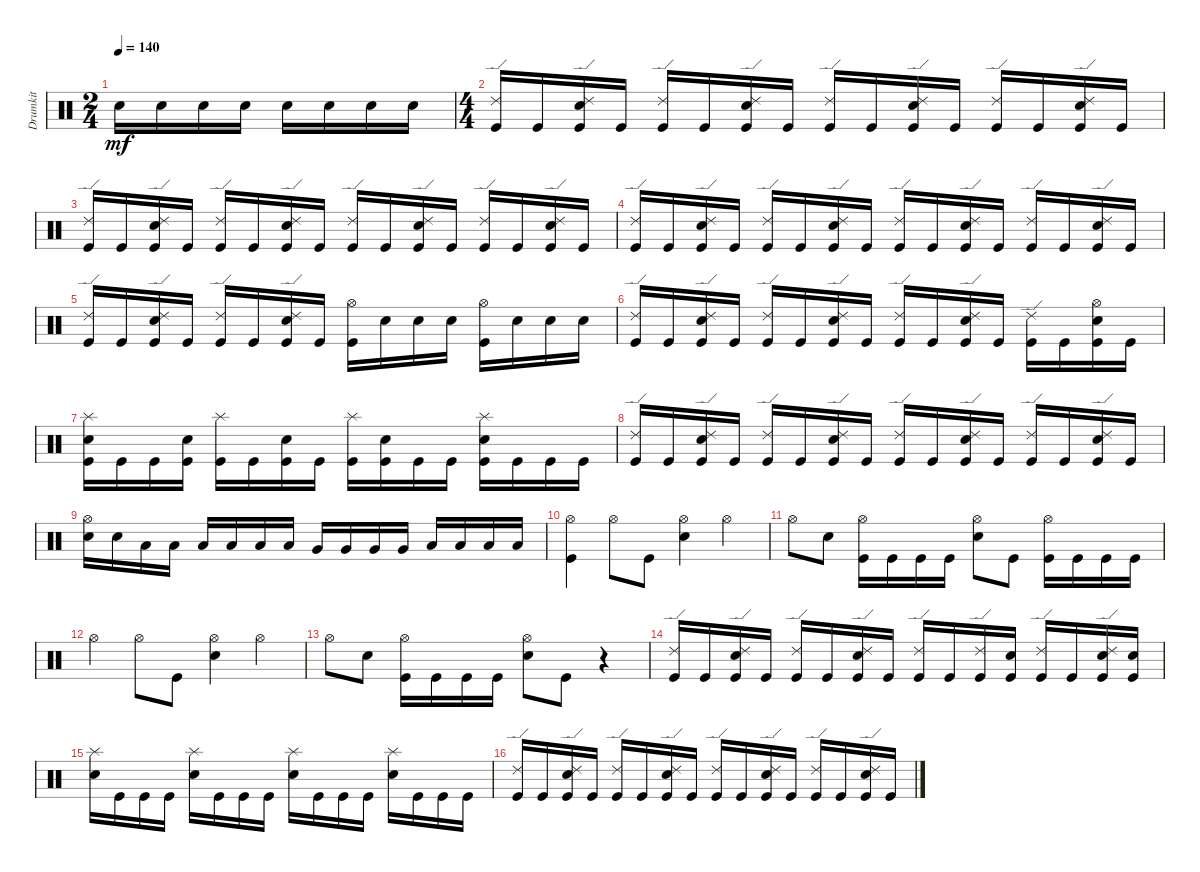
\track ("Drumkit" "Drumkit") {instrument percussion}
\staff {score}
\articulation defaults
\ts (2 4)
\tempo 140
\clef neutral
\ks c "Snare (hit) 2".16{dy mf} "Snare (hit) 2".16 "Snare (hit) 2".16 "Snare (hit) 2".16 "Snare (hit) 2".16 "Snare (hit) 2".16 "Snare (hit) 2".16 "Snare (hit) 2".16
|
\ts (4 4)
("Kick (hit)" "Ride (edge) 2").16 "Kick (hit)".16 ("Ride (edge) 2" "Snare (hit) 2" "Kick (hit)").16 "Kick (hit)".16 ("Kick (hit)" "Ride (edge) 2").16 "Kick (hit)".16 ("Ride (edge) 2" "Snare (hit) 2" "Kick (hit)").16 "Kick (hit)".16 ("Kick (hit)" "Ride (edge) 2").16 "Kick (hit)".16 ("Ride (edge) 2" "Snare (hit) 2" "Kick (hit)").16 "Kick (hit)".16 ("Kick (hit)" "Ride (edge) 2").16 "Kick (hit)".16 ("Snare (hit) 2" "Kick (hit)" "Ride (edge) 2").16 "Kick (hit)".16 |
("Kick (hit)" "Ride (edge) 2").16 "Kick (hit)".16 ("Ride (edge) 2" "Snare (hit) 2" "Kick (hit)").16 "Kick (hit)".16 ("Kick (hit)" "Ride (edge) 2").16 "Kick (hit)".16 ("Ride (edge) 2" "Snare (hit) 2" "Kick (hit)").16 "Kick (hit)".16 ("Kick (hit)" "Ride (edge) 2").16 "Kick (hit)".16 ("Ride (edge) 2" "Snare (hit) 2" "Kick (hit)").16 "Kick (hit)".16 ("Kick (hit)" "Ride (edge) 2").16 "Kick (hit)".16 ("Ride (edge) 2" "Snare (hit) 2" "Kick (hit)").16 "Kick (hit)".16 |
("Kick (hit)" "Ride (edge) 2").16 "Kick (hit)".16 ("Ride (edge) 2" "Snare (hit) 2" "Kick (hit)").16 "Kick (hit)".16 ("Kick (hit)" "Ride (edge) 2").16 "Kick (hit)".16 ("Ride (edge) 2" "Snare (hit) 2" "Kick (hit)").16 "Kick (hit)".16 ("Kick (hit)" "Ride (edge) 2").16 "Kick (hit)".16 ("Ride (edge) 2" "Snare (hit) 2" "Kick (hit)").16 "Kick (hit)".16 ("Kick (hit)" "Ride (edge) 2").16 "Kick (hit)".16 ("Ride (edge) 2" "Snare (hit) 2" "Kick (hit)").16 "Kick (hit)".16 |
("Kick (hit)" "Ride (edge) 2").16 "Kick (hit)".16 ("Ride (edge) 2" "Snare (hit) 2" "Kick (hit)").16 "Kick (hit)".16 ("Kick (hit)" "Ride (edge) 2").16 "Kick (hit)".16 ("Ride (edge) 2" "Snare (hit) 2" "Kick (hit)").16 "Kick (hit)".16 ("Kick (hit)" "Hi-Hat (open)").16 "Snare (hit) 2".16 "Snare (hit) 2".16 "Snare (hit) 2".16 ("Kick (hit)" "Hi-Hat (open)").16 "Snare (hit) 2".16 "Snare (hit) 2".16 "Snare (hit) 2".16 |
("Kick (hit)" "Ride (edge) 2").16 "Kick (hit)".16 ("Ride (edge) 2" "Snare (hit) 2" "Kick (hit)").16 "Kick (hit)".16 ("Kick (hit)" "Ride (edge) 2").16 "Kick (hit)".16 ("Ride (edge) 2" "Snare (hit) 2" "Kick (hit)").16 "Kick (hit)".16 ("Kick (hit)" "Ride (edge) 2").16 "Kick (hit)".16 ("Ride (edge) 2" "Snare (hit) 2" "Kick (hit)").16 "Kick (hit)".16 ("Kick (hit)" "Ride (edge) 2").16 "Kick (hit)".16 ("Snare (hit) 2" "Kick (hit)" "Hi-Hat (open)").16 "Kick (hit)".16 |
("Kick (hit)" "Splash (hit)" "Snare (hit) 2").16 "Kick (hit)".16 "Kick (hit)".16 ("Kick (hit)" "Snare (hit) 2").16 ("Kick (hit)" "Splash (hit)").16 "Kick (hit)".16 ("Kick (hit)" "Snare (hit) 2").16 "Kick (hit)".16 ("Kick (hit)" "Splash (hit)").16 ("Kick (hit)" "Snare (hit) 2").16 "Kick (hit)".16 "Kick (hit)".16 ("Kick (hit)" "Splash (hit)" "Snare (hit) 2").16 "Kick (hit)".16 "Kick (hit)".16 "Kick (hit)".16 |
("Kick (hit)" "Ride (edge) 2").16 "Kick (hit)".16 ("Ride (edge) 2" "Snare (hit) 2" "Kick (hit)").16 "Kick (hit)".16 ("Kick (hit)" "Ride (edge) 2").16 "Kick (hit)".16 ("Ride (edge) 2" "Snare (hit) 2" "Kick (hit)").16 "Kick (hit)".16 ("Kick (hit)" "Ride (edge) 2").16 "Kick (hit)".16 ("Ride (edge) 2" "Snare (hit) 2" "Kick (hit)").16 "Kick (hit)".16 ("Kick (hit)" "Ride (edge) 2").16 "Kick (hit)".16 ("Ride (edge) 2" "Snare (hit) 2" "Kick (hit)").16 "Kick (hit)".16 |
("Hi-Hat (open)" "Snare (hit) 2").16 "Snare (hit) 2".16 "Low Tom (hit)".16 "Low Tom (hit)".16 "Low Tom (hit)".16 "Low Tom (hit)".16 "Low Tom (hit)".16 "Low Tom (hit)".16 "Very Low Tom (hit)".16 "Very Low Tom (hit)".16 "Very Low Tom (hit)".16 "Very Low Tom (hit)".16 "Low Floor Tom (hit)".16 "Low Floor Tom (hit)".16 "Low Floor Tom (hit)".16 "Low Floor Tom (hit)".16 |
("Kick (hit)" "Hi-Hat (open)").4 "Hi-Hat (open)".8 "Kick (hit)".8 ("Snare (hit) 2" "Hi-Hat (open)").4 "Hi-Hat (open)".4 |
"Hi-Hat (open)".8 "Snare (hit) 2".8 ("Kick (hit)" "Hi-Hat (open)").16 "Kick (hit)".16 "Kick (hit)".16 "Kick (hit)".16 ("Snare (hit) 2" "Hi-Hat (open)").8 "Kick (hit)".8 ("Kick (hit)" "Hi-Hat (open)").16 "Kick (hit)".16 "Kick (hit)".16 "Kick (hit)".16 |
"Hi-Hat (open)".4 "Hi-Hat (open)".8 "Kick (hit)".8 ("Snare (hit) 2" "Hi-Hat (open)").4 "Hi-Hat (open)".4 |
"Hi-Hat (open)".8 "Snare (hit) 2".8 ("Kick (hit)" "Hi-Hat (open)").16 "Kick (hit)".16 "Kick (hit)".16 "Kick (hit)".16 ("Snare (hit) 2" "Hi-Hat (open)").8 "Kick (hit)".8 r.4 |
("Kick (hit)" "Ride (edge) 2").16 "Kick (hit)".16 ("Ride (edge) 2" "Snare (hit) 2" "Kick (hit)").16 "Kick (hit)".16 ("Kick (hit)" "Ride (edge) 2").16 "Kick (hit)".16 ("Ride (edge) 2" "Snare (hit) 2" "Kick (hit)").16 "Kick (hit)".16 ("Kick (hit)" "Ride (edge) 2").16 "Kick (hit)".16 ("Ride (edge) 2" "Kick (hit)").16 ("Kick (hit)" "Snare (hit) 2").16 ("Kick (hit)" "Ride (edge) 2").16 "Kick (hit)".16 ("Ride (edge) 2" "Snare (hit) 2" "Kick (hit)").16 ("Kick (hit)" "Snare (hit) 2").16 |
("Snare (hit) 2" "Splash (hit)").16 "Kick (hit)".16 "Kick (hit)".16 "Kick (hit)".16 ("Snare (hit) 2" "Splash (hit)").16 "Kick (hit)".16 "Kick (hit)".16 "Kick (hit)".16 ("Snare (hit) 2" "Splash (hit)").16 "Kick (hit)".16 "Kick (hit)".16 "Kick (hit)".16 ("Snare (hit) 2" "Splash (hit)").16 "Kick (hit)".16 "Kick (hit)".16 "Kick (hit)".16 |
("Kick (hit)" "Ride (edge) 2").16 "Kick (hit)".16 ("Ride (edge) 2" "Snare (hit) 2" "Kick (hit)").16 "Kick (hit)".16 ("Kick (hit)" "Ride (edge) 2").16 "Kick (hit)".16 ("Ride (edge) 2" "Snare (hit) 2" "Kick (hit)").16 "Kick (hit)".16 ("Kick (hit)" "Ride (edge) 2").16 "Kick (hit)".16 ("Ride (edge) 2" "Snare (hit) 2" "Kick (hit)").16 "Kick (hit)".16 ("Kick (hit)" "Ride (edge) 2").16 "Kick (hit)".16 ("Ride (edge) 2" "Snare (hit) 2" "Kick (hit)").16 "Kick (hit)".16
